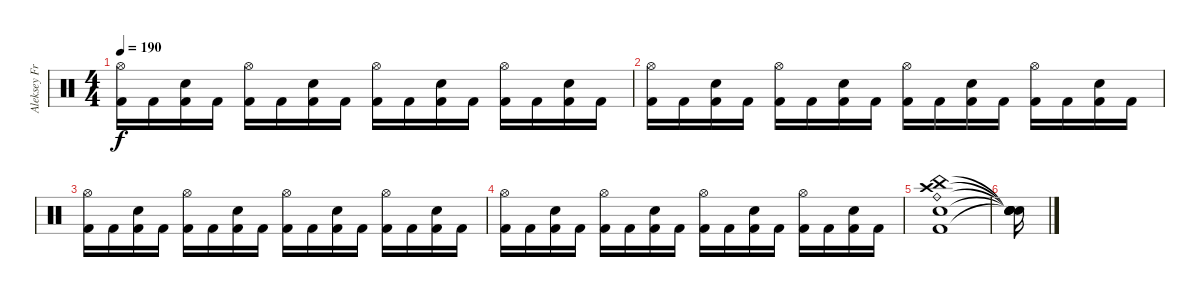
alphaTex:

\track ("Aleksey Frolov" "Aleksey Fr") {instrument percussion}
\staff {score}
\articulation defaults
\ts (4 4)
\tempo 190
\clef neutral
\ks c
("Kick (hit) 2" "Hi-Hat (open)").16{dy f} "Kick (hit) 2".16 ("Kick (hit) 2" "Electric Snare (hit)").16 "Kick (hit) 2".16 ("Kick (hit) 2" "Hi-Hat (open)").16 "Kick (hit) 2".16 ("Kick (hit) 2" "Electric Snare (hit)").16 "Kick (hit) 2".16 ("Kick (hit) 2" "Hi-Hat (open)").16 "Kick (hit) 2".16 ("Kick (hit) 2" "Electric Snare (hit)").16 "Kick (hit) 2".16 ("Kick (hit) 2" "Hi-Hat (open)").16 "Kick (hit) 2".16 ("Kick (hit) 2" "Electric Snare (hit)").16 "Kick (hit) 2".16 |
("Kick (hit) 2" "Hi-Hat (open)").16 "Kick (hit) 2".16 ("Kick (hit) 2" "Electric Snare (hit)").16 "Kick (hit) 2".16 ("Kick (hit) 2" "Hi-Hat (open)").16 "Kick (hit) 2".16 ("Kick (hit) 2" "Electric Snare (hit)").16 "Kick (hit) 2".16 ("Kick (hit) 2" "Hi-Hat (open)").16 "Kick (hit) 2".16 ("Kick (hit) 2" "Electric Snare (hit)").16 "Kick (hit) 2".16 ("Kick (hit) 2" "Hi-Hat (open)").16 "Kick (hit) 2".16 ("Kick (hit) 2" "Electric Snare (hit)").16 "Kick (hit) 2".16 |
("Kick (hit) 2" "Hi-Hat (open)").16 "Kick (hit) 2".16 ("Kick (hit) 2" "Electric Snare (hit)").16 "Kick (hit) 2".16 ("Kick (hit) 2" "Hi-Hat (open)").16 "Kick (hit) 2".16 ("Kick (hit) 2" "Electric Snare (hit)").16 "Kick (hit) 2".16 ("Kick (hit) 2" "Hi-Hat (open)").16 "Kick (hit) 2".16 ("Kick (hit) 2" "Electric Snare (hit)").16 "Kick (hit) 2".16 ("Kick (hit) 2" "Hi-Hat (open)").16 "Kick (hit) 2".16 ("Kick (hit) 2" "Electric Snare (hit)").16 "Kick (hit) 2".16 |
("Kick (hit) 2" "Hi-Hat (open)").16 "Kick (hit) 2".16 ("Kick (hit) 2" "Electric Snare (hit)").16 "Kick (hit) 2".16 ("Kick (hit) 2" "Hi-Hat (open)").16 "Kick (hit) 2".16 ("Kick (hit) 2" "Electric Snare (hit)").16 "Kick (hit) 2".16 ("Kick (hit) 2" "Hi-Hat (open)").16 "Kick (hit) 2".16 ("Kick (hit) 2" "Electric Snare (hit)").16 "Kick (hit) 2".16 ("Kick (hit) 2" "Hi-Hat (open)").16 "Kick (hit) 2".16 ("Kick (hit) 2" "Electric Snare (hit)").16 "Kick (hit) 2".16 |
("Kick (hit) 2" "Electric Snare (hit)" "Crash high (hit)" "Ride (bell)" "China (hit)").1 |
("Snare (hit)"{t} "Snare (hit)"{t} "Snare (hit)"{t} "Snare (hit)"{t} "Snare (hit)"{t}).16
